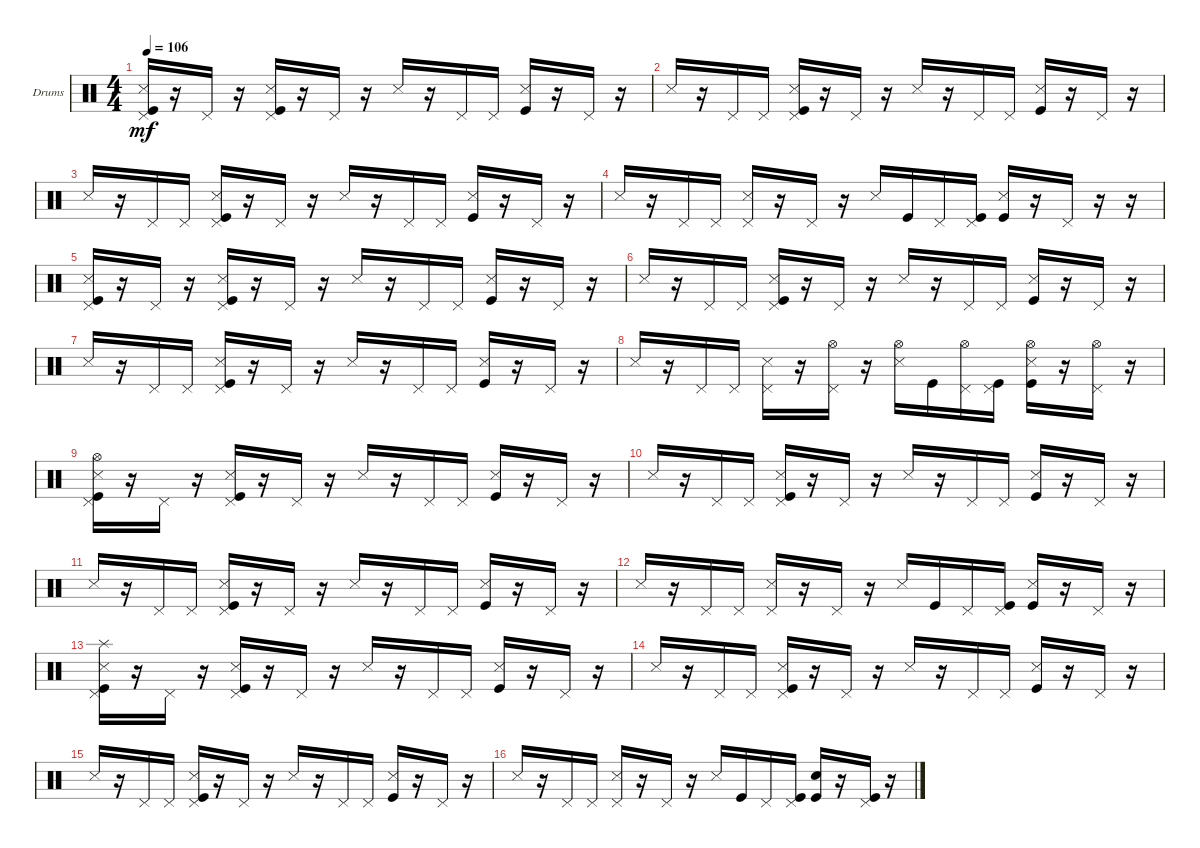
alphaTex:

\defaultSystemsLayout 4
\bracketExtendMode groupsimilarinstruments
\firstSystemTrackNameOrientation horizontal
\otherSystemsTrackNameOrientation horizontal
\track ("Drumkit" "Drums") {instrument percussion}
\staff {score}
\articulation defaults
\ts (4 4)
\tempo 106
\clef neutral
\ks c
("Pedal Hi-Hat (hit)" "Kick (hit)" "Snare (side stick) 3").16{dy mf} r.16 "Pedal Hi-Hat (hit)".16 r.16 ("Pedal Hi-Hat (hit)" "Kick (hit)" "Snare (side stick) 3").16 r.16 "Pedal Hi-Hat (hit)".16 r.16 "Snare (side stick) 3".16 r.16 "Pedal Hi-Hat (hit)".16 "Pedal Hi-Hat (hit)".16 ("Kick (hit)" "Snare (side stick) 3").16 r.16 "Pedal Hi-Hat (hit)".16 r.16 |
"Snare (side stick) 3".16 r.16 "Pedal Hi-Hat (hit)".16 "Pedal Hi-Hat (hit)".16 ("Pedal Hi-Hat (hit)" "Snare (side stick) 3" "Kick (hit)").16 r.16 "Pedal Hi-Hat (hit)".16 r.16 "Snare (side stick) 3".16 r.16 "Pedal Hi-Hat (hit)".16 "Pedal Hi-Hat (hit)".16 ("Kick (hit)" "Snare (side stick) 3").16 r.16 "Pedal Hi-Hat (hit)".16 r.16 |
"Snare (side stick) 3".16 r.16 "Pedal Hi-Hat (hit)".16 "Pedal Hi-Hat (hit)".16 ("Pedal Hi-Hat (hit)" "Snare (side stick) 3" "Kick (hit)").16 r.16 "Pedal Hi-Hat (hit)".16 r.16 "Snare (side stick) 3".16 r.16 "Pedal Hi-Hat (hit)".16 "Pedal Hi-Hat (hit)".16 ("Kick (hit)" "Snare (side stick) 3").16 r.16 "Pedal Hi-Hat (hit)".16 r.16 |
"Snare (side stick) 3".16 r.16 "Pedal Hi-Hat (hit)".16 "Pedal Hi-Hat (hit)".16 ("Pedal Hi-Hat (hit)" "Snare (side stick) 3").16 r.16 "Pedal Hi-Hat (hit)".16 r.16 "Snare (side stick) 3".16 "Kick (hit)".16 "Pedal Hi-Hat (hit)".16 ("Pedal Hi-Hat (hit)" "Kick (hit)").16 ("Snare (side stick) 3" "Kick (hit)").16 r.16 "Pedal Hi-Hat (hit)".16 r.16 r.16 |
("Pedal Hi-Hat (hit)" "Kick (hit)" "Snare (side stick) 3").16 r.16 "Pedal Hi-Hat (hit)".16 r.16 ("Pedal Hi-Hat (hit)" "Kick (hit)" "Snare (side stick) 3").16 r.16 "Pedal Hi-Hat (hit)".16 r.16 "Snare (side stick) 3".16 r.16 "Pedal Hi-Hat (hit)".16 "Pedal Hi-Hat (hit)".16 ("Kick (hit)" "Snare (side stick) 3").16 r.16 "Pedal Hi-Hat (hit)".16 r.16 |
"Snare (side stick) 3".16 r.16 "Pedal Hi-Hat (hit)".16 "Pedal Hi-Hat (hit)".16 ("Pedal Hi-Hat (hit)" "Snare (side stick) 3" "Kick (hit)").16 r.16 "Pedal Hi-Hat (hit)".16 r.16 "Snare (side stick) 3".16 r.16 "Pedal Hi-Hat (hit)".16 "Pedal Hi-Hat (hit)".16 ("Kick (hit)" "Snare (side stick) 3").16 r.16 "Pedal Hi-Hat (hit)".16 r.16 |
"Snare (side stick) 3".16 r.16 "Pedal Hi-Hat (hit)".16 "Pedal Hi-Hat (hit)".16 ("Pedal Hi-Hat (hit)" "Snare (side stick) 3" "Kick (hit)").16 r.16 "Pedal Hi-Hat (hit)".16 r.16 "Snare (side stick) 3".16 r.16 "Pedal Hi-Hat (hit)".16 "Pedal Hi-Hat (hit)".16 ("Kick (hit)" "Snare (side stick) 3").16 r.16 "Pedal Hi-Hat (hit)".16 r.16 |
"Snare (side stick) 3".16 r.16 "Pedal Hi-Hat (hit)".16 "Pedal Hi-Hat (hit)".16 ("Pedal Hi-Hat (hit)" "Snare (side stick) 3").16 r.16 ("Pedal Hi-Hat (hit)" "Hi-Hat (open)").16 r.16 ("Snare (side stick) 3" "Hi-Hat (open)").16 "Kick (hit)".16 ("Pedal Hi-Hat (hit)" "Hi-Hat (open)").16 ("Pedal Hi-Hat (hit)" "Kick (hit)").16 ("Snare (side stick) 3" "Kick (hit)" "Hi-Hat (open)").16 r.16 ("Pedal Hi-Hat (hit)" "Hi-Hat (open)").16 r.16 |
("Pedal Hi-Hat (hit)" "Kick (hit)" "Snare (side stick) 3" "Hi-Hat (open)").16 r.16 "Pedal Hi-Hat (hit)".16 r.16 ("Pedal Hi-Hat (hit)" "Kick (hit)" "Snare (side stick) 3").16 r.16 "Pedal Hi-Hat (hit)".16 r.16 "Snare (side stick) 3".16 r.16 "Pedal Hi-Hat (hit)".16 "Pedal Hi-Hat (hit)".16 ("Kick (hit)" "Snare (side stick) 3").16 r.16 "Pedal Hi-Hat (hit)".16 r.16 |
"Snare (side stick) 3".16 r.16 "Pedal Hi-Hat (hit)".16 "Pedal Hi-Hat (hit)".16 ("Pedal Hi-Hat (hit)" "Snare (side stick) 3" "Kick (hit)").16 r.16 "Pedal Hi-Hat (hit)".16 r.16 "Snare (side stick) 3".16 r.16 "Pedal Hi-Hat (hit)".16 "Pedal Hi-Hat (hit)".16 ("Kick (hit)" "Snare (side stick) 3").16 r.16 "Pedal Hi-Hat (hit)".16 r.16 |
"Snare (side stick) 3".16 r.16 "Pedal Hi-Hat (hit)".16 "Pedal Hi-Hat (hit)".16 ("Pedal Hi-Hat (hit)" "Snare (side stick) 3" "Kick (hit)").16 r.16 "Pedal Hi-Hat (hit)".16 r.16 "Snare (side stick) 3".16 r.16 "Pedal Hi-Hat (hit)".16 "Pedal Hi-Hat (hit)".16 ("Kick (hit)" "Snare (side stick) 3").16 r.16 "Pedal Hi-Hat (hit)".16 r.16 |
"Snare (side stick) 3".16 r.16 "Pedal Hi-Hat (hit)".16 "Pedal Hi-Hat (hit)".16 ("Pedal Hi-Hat (hit)" "Snare (side stick) 3").16 r.16 "Pedal Hi-Hat (hit)".16 r.16 "Snare (side stick) 3".16 "Kick (hit)".16 "Pedal Hi-Hat (hit)".16 ("Pedal Hi-Hat (hit)" "Kick (hit)").16 ("Snare (side stick) 3" "Kick (hit)").16 r.16 "Pedal Hi-Hat (hit)".16 r.16 |
("Pedal Hi-Hat (hit)" "Kick (hit)" "Snare (side stick) 3" "Splash (hit)").16 r.16 "Pedal Hi-Hat (hit)".16 r.16 ("Pedal Hi-Hat (hit)" "Kick (hit)" "Snare (side stick) 3").16 r.16 "Pedal Hi-Hat (hit)".16 r.16 "Snare (side stick) 3".16 r.16 "Pedal Hi-Hat (hit)".16 "Pedal Hi-Hat (hit)".16 ("Kick (hit)" "Snare (side stick) 3").16 r.16 "Pedal Hi-Hat (hit)".16 r.16 |
"Snare (side stick) 3".16 r.16 "Pedal Hi-Hat (hit)".16 "Pedal Hi-Hat (hit)".16 ("Pedal Hi-Hat (hit)" "Snare (side stick) 3" "Kick (hit)").16 r.16 "Pedal Hi-Hat (hit)".16 r.16 "Snare (side stick) 3".16 r.16 "Pedal Hi-Hat (hit)".16 "Pedal Hi-Hat (hit)".16 ("Kick (hit)" "Snare (side stick) 3").16 r.16 "Pedal Hi-Hat (hit)".16 r.16 |
"Snare (side stick) 3".16 r.16 "Pedal Hi-Hat (hit)".16 "Pedal Hi-Hat (hit)".16 ("Pedal Hi-Hat (hit)" "Snare (side stick) 3" "Kick (hit)").16 r.16 "Pedal Hi-Hat (hit)".16 r.16 "Snare (side stick) 3".16 r.16 "Pedal Hi-Hat (hit)".16 "Pedal Hi-Hat (hit)".16 ("Kick (hit)" "Snare (side stick) 3").16 r.16 "Pedal Hi-Hat (hit)".16 r.16 |
"Snare (side stick) 3".16 r.16 "Pedal Hi-Hat (hit)".16 "Pedal Hi-Hat (hit)".16 ("Pedal Hi-Hat (hit)" "Snare (side stick) 3").16 r.16 "Pedal Hi-Hat (hit)".16 r.16 "Snare (side stick) 3".16 "Kick (hit)".16 "Pedal Hi-Hat (hit)".16 ("Pedal Hi-Hat (hit)" "Kick (hit)").16 ("Snare (hit) 2" "Kick (hit)").16 r.16 ("Pedal Hi-Hat (hit)" "Kick (hit)").16 r.16
